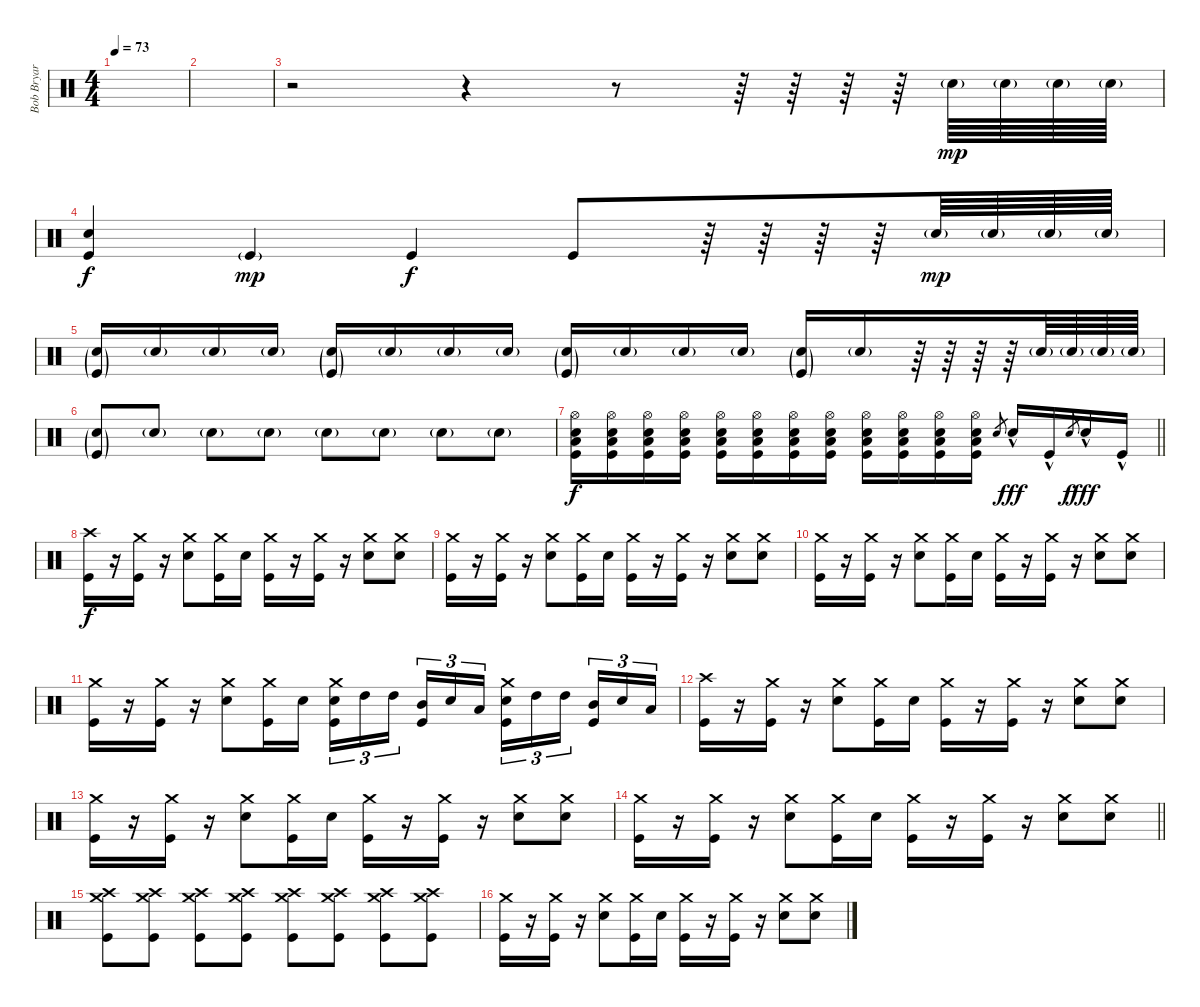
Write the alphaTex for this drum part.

\track ("Bob Bryar [Drums]" "Bob Bryar ") {instrument percussion}
\staff {score}
\articulation defaults
\ts (4 4)
\tempo 73
\clef neutral
\ks c
|
|
r.2 r.4 r.8 r.64 r.64 r.64 r.64 "Snare (hit) 2"{g}.64{dy mp} "Snare (hit) 2"{g}.64 "Snare (hit) 2"{g}.64 "Snare (hit) 2"{g}.64 |
("Kick (hit)" "Snare (hit) 2").4{dy f} "Kick (hit)"{g}.4{dy mp} "Kick (hit)".4{dy f} "Kick (hit)".8 r.64 r.64 r.64 r.64 "Snare (hit) 2"{g}.64{dy mp} "Snare (hit) 2"{g}.64 "Snare (hit) 2"{g}.64 "Snare (hit) 2"{g}.64 |
("Snare (hit) 2"{g} "Kick (hit)"{g}).16 "Snare (hit) 2"{g}.16 "Snare (hit) 2"{g}.16 "Snare (hit) 2"{g}.16 ("Snare (hit) 2"{g} "Kick (hit)"{g}).16 "Snare (hit) 2"{g}.16 "Snare (hit) 2"{g}.16 "Snare (hit) 2"{g}.16 ("Snare (hit) 2"{g} "Kick (hit)"{g}).16 "Snare (hit) 2"{g}.16 "Snare (hit) 2"{g}.16 "Snare (hit) 2"{g}.16 ("Snare (hit) 2"{g} "Kick (hit)"{g}).16 "Snare (hit) 2"{g}.16 r.64 r.64 r.64 r.64 "Snare (hit) 2"{g}.64 "Snare (hit) 2"{g}.64 "Snare (hit) 2"{g}.64 "Snare (hit) 2"{g}.64 |
("Snare (hit) 2"{g} "Kick (hit)"{g}).8 "Snare (hit) 2"{g}.8 "Snare (hit) 2"{g}.8 "Snare (hit) 2"{g}.8 "Snare (hit) 2"{g}.8 "Snare (hit) 2"{g}.8 "Snare (hit) 2"{g}.8 "Snare (hit) 2"{g}.8 |
\barLineRight lightlight
("Hi-Hat (open)" "Low Tom (hit)" "Snare (hit) 2" "Kick (hit)").16{dy f volume 5} ("Hi-Hat (open)" "Low Tom (hit)" "Snare (hit) 2" "Kick (hit)").16{volume 16} ("Hi-Hat (open)" "Low Tom (hit)" "Snare (hit) 2" "Kick (hit)").16 ("Hi-Hat (open)" "Low Tom (hit)" "Snare (hit) 2" "Kick (hit)").16 ("Hi-Hat (open)" "Low Tom (hit)" "Snare (hit) 2" "Kick (hit)").16 ("Hi-Hat (open)" "Low Tom (hit)" "Snare (hit) 2" "Kick (hit)").16 ("Hi-Hat (open)" "Low Tom (hit)" "Snare (hit) 2" "Kick (hit)").16 ("Hi-Hat (open)" "Low Tom (hit)" "Snare (hit) 2" "Kick (hit)").16 ("Hi-Hat (open)" "Low Tom (hit)" "Snare (hit) 2" "Kick (hit)").16 ("Hi-Hat (open)" "Low Tom (hit)" "Snare (hit) 2" "Kick (hit)").16 ("Hi-Hat (open)" "Low Tom (hit)" "Snare (hit) 2" "Kick (hit)").16 ("Hi-Hat (open)" "Low Tom (hit)" "Snare (hit) 2" "Kick (hit)").16 "Snare (hit) 2".8{gr} "Snare (hit) 2"{hac}.16{dy fff} "Kick (hit)"{hac}.16 "Snare (hit) 2".8{gr dy f} "Snare (hit) 2"{hac}.16{dy fff} "Kick (hit)"{hac}.16 |
("Crash high (hit)" "Kick (hit)").16{dy f} r.16 ("Crash medium (hit)" "Kick (hit)").16 r.16 ("Crash medium (hit)" "Snare (hit) 2").8 ("Crash medium (hit)" "Kick (hit)").16 "Snare (hit) 2".16 ("Crash medium (hit)" "Kick (hit)").16 r.16 ("Crash medium (hit)" "Kick (hit)").16 r.16 ("Crash medium (hit)" "Snare (hit) 2").8 ("Crash medium (hit)" "Snare (hit) 2").8 |
("Crash medium (hit)" "Kick (hit)").16 r.16 ("Crash medium (hit)" "Kick (hit)").16 r.16 ("Crash medium (hit)" "Snare (hit) 2").8 ("Crash medium (hit)" "Kick (hit)").16 "Snare (hit) 2".16 ("Crash medium (hit)" "Kick (hit)").16 r.16 ("Crash medium (hit)" "Kick (hit)").16 r.16 ("Crash medium (hit)" "Snare (hit) 2").8 ("Crash medium (hit)" "Snare (hit) 2").8 |
("Crash medium (hit)" "Kick (hit)").16 r.16 ("Crash medium (hit)" "Kick (hit)").16 r.16 ("Crash medium (hit)" "Snare (hit) 2").8 ("Crash medium (hit)" "Kick (hit)").16 "Snare (hit) 2".16 ("Crash medium (hit)" "Kick (hit)").16 r.16 ("Crash medium (hit)" "Kick (hit)").16 r.16 ("Crash medium (hit)" "Snare (hit) 2").8 ("Crash medium (hit)" "Snare (hit) 2").8 |
("Crash medium (hit)" "Kick (hit)").16 r.16 ("Crash medium (hit)" "Kick (hit)").16 r.16 ("Crash medium (hit)" "Snare (hit) 2").8 ("Crash medium (hit)" "Kick (hit)").16 "Snare (hit) 2".16 ("Crash medium (hit)" "Snare (hit) 2" "Kick (hit)").16{tu (3 2)} "High Tom (hit)".16{tu (3 2)} "High Tom (hit)".16{tu (3 2) beam splitsecondary} ("Mid Tom (hit)" "Kick (hit)").16{tu (3 2)} "Snare (hit) 2".16{tu (3 2)} "Low Tom (hit)".16{tu (3 2)} ("Crash medium (hit)" "Snare (hit) 2" "Kick (hit)").16{tu (3 2)} "High Tom (hit)".16{tu (3 2)} "High Tom (hit)".16{tu (3 2) beam splitsecondary} ("Mid Tom (hit)" "Kick (hit)").16{tu (3 2)} "Snare (hit) 2".16{tu (3 2)} "Low Tom (hit)".16{tu (3 2)} |
("Crash high (hit)" "Kick (hit)").16 r.16 ("Crash medium (hit)" "Kick (hit)").16 r.16 ("Crash medium (hit)" "Snare (hit) 2").8 ("Crash medium (hit)" "Kick (hit)").16 "Snare (hit) 2".16 ("Crash medium (hit)" "Kick (hit)").16 r.16 ("Crash medium (hit)" "Kick (hit)").16 r.16 ("Crash medium (hit)" "Snare (hit) 2").8 ("Crash medium (hit)" "Snare (hit) 2").8 |
("Crash medium (hit)" "Kick (hit)").16 r.16 ("Crash medium (hit)" "Kick (hit)").16 r.16 ("Crash medium (hit)" "Snare (hit) 2").8 ("Crash medium (hit)" "Kick (hit)").16 "Snare (hit) 2".16 ("Crash medium (hit)" "Kick (hit)").16 r.16 ("Crash medium (hit)" "Kick (hit)").16 r.16 ("Crash medium (hit)" "Snare (hit) 2").8 ("Crash medium (hit)" "Snare (hit) 2").8 |
\barLineRight lightlight
("Crash medium (hit)" "Kick (hit)").16 r.16 ("Crash medium (hit)" "Kick (hit)").16 r.16 ("Crash medium (hit)" "Snare (hit) 2").8 ("Crash medium (hit)" "Kick (hit)").16 "Snare (hit) 2".16 ("Crash medium (hit)" "Kick (hit)").16 r.16 ("Crash medium (hit)" "Kick (hit)").16 r.16 ("Crash medium (hit)" "Snare (hit) 2").8 ("Crash medium (hit)" "Snare (hit) 2").8 |
("Crash medium (hit)" "Kick (hit)" "Crash high (hit)").8 ("Crash medium (hit)" "Kick (hit)" "Crash high (hit)").8 ("Crash medium (hit)" "Kick (hit)" "Crash high (hit)").8 ("Crash medium (hit)" "Kick (hit)" "Crash high (hit)").8 ("Crash medium (hit)" "Kick (hit)" "Crash high (hit)").8 ("Crash medium (hit)" "Kick (hit)" "Crash high (hit)").8 ("Crash medium (hit)" "Kick (hit)" "Crash high (hit)").8 ("Crash medium (hit)" "Kick (hit)" "Crash high (hit)").8 |
("Crash medium (hit)" "Kick (hit)").16 r.16 ("Crash medium (hit)" "Kick (hit)").16 r.16 ("Crash medium (hit)" "Snare (hit) 2").8 ("Crash medium (hit)" "Kick (hit)").16 "Snare (hit) 2".16 ("Crash medium (hit)" "Kick (hit)").16 r.16 ("Crash medium (hit)" "Kick (hit)").16 r.16 ("Crash medium (hit)" "Snare (hit) 2").8 ("Crash medium (hit)" "Snare (hit) 2").8
